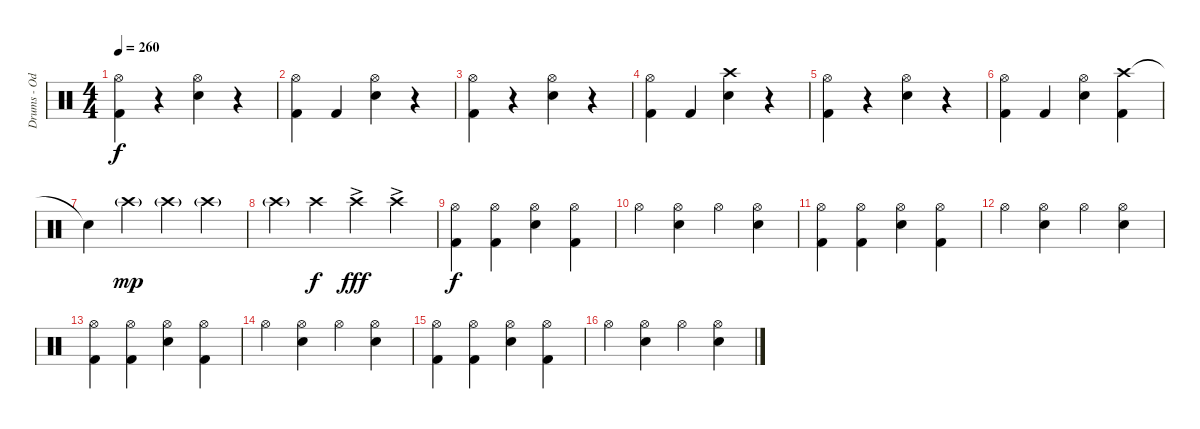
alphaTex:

\track ("Drums - Oded Perach" "Drums - Od") {instrument percussion}
\staff {score}
\articulation defaults
\ts (4 4)
\tempo 260
\clef neutral
\ks c
("Hi-Hat (open)" "Kick (hit) 2").4{dy f} r.4 ("Hi-Hat (open)" "Snare (hit) 2").4 r.4 |
("Hi-Hat (open)" "Kick (hit) 2").4 "Kick (hit) 2".4 ("Hi-Hat (open)" "Snare (hit) 2").4 r.4 |
("Hi-Hat (open)" "Kick (hit) 2").4 r.4 ("Hi-Hat (open)" "Snare (hit) 2").4 r.4 |
("Hi-Hat (open)" "Kick (hit) 2").4 "Kick (hit) 2".4 ("Crash high (hit)" "Snare (hit) 2").4 r.4 |
("Hi-Hat (open)" "Kick (hit) 2").4 r.4 ("Hi-Hat (open)" "Snare (hit) 2").4 r.4 |
("Hi-Hat (open)" "Kick (hit) 2").4 "Kick (hit) 2".4 ("Hi-Hat (open)" "Snare (hit) 2").4 ("Crash high (hit)" "Kick (hit) 2").4 |
"Snare (hit)"{t}.4 "Crash high (hit)"{g}.4{dy mp} "Crash high (hit)"{g}.4 "Crash high (hit)"{g}.4 |
"Crash high (hit)"{g}.4 "Crash high (hit)".4{dy f} "Crash high (hit)"{ac}.4{dy fff} "Crash high (hit)"{ac}.4 |
("Hi-Hat (open)" "Kick (hit) 2").4{dy f} ("Hi-Hat (open)" "Kick (hit) 2").4 ("Hi-Hat (open)" "Snare (hit) 2").4 ("Hi-Hat (open)" "Kick (hit) 2").4 |
"Hi-Hat (open)".4 ("Hi-Hat (open)" "Snare (hit) 2").4 "Hi-Hat (open)".4 ("Hi-Hat (open)" "Snare (hit) 2").4 |
("Hi-Hat (open)" "Kick (hit) 2").4 ("Hi-Hat (open)" "Kick (hit) 2").4 ("Hi-Hat (open)" "Snare (hit) 2").4 ("Hi-Hat (open)" "Kick (hit) 2").4 |
"Hi-Hat (open)".4 ("Hi-Hat (open)" "Snare (hit) 2").4 "Hi-Hat (open)".4 ("Hi-Hat (open)" "Snare (hit) 2").4 |
("Hi-Hat (open)" "Kick (hit) 2").4 ("Hi-Hat (open)" "Kick (hit) 2").4 ("Hi-Hat (open)" "Snare (hit) 2").4 ("Hi-Hat (open)" "Kick (hit) 2").4 |
"Hi-Hat (open)".4 ("Hi-Hat (open)" "Snare (hit) 2").4 "Hi-Hat (open)".4 ("Hi-Hat (open)" "Snare (hit) 2").4 |
("Hi-Hat (open)" "Kick (hit) 2").4 ("Hi-Hat (open)" "Kick (hit) 2").4 ("Hi-Hat (open)" "Snare (hit) 2").4 ("Hi-Hat (open)" "Kick (hit) 2").4 |
"Hi-Hat (open)".4 ("Hi-Hat (open)" "Snare (hit) 2").4 "Hi-Hat (open)".4 ("Hi-Hat (open)" "Snare (hit) 2").4
